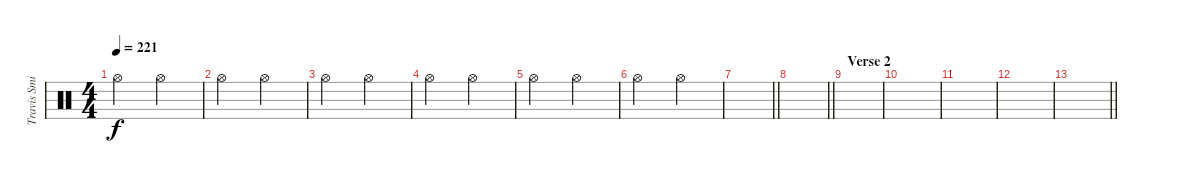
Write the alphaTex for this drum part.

\track ("Travis Smith" "Travis Smi") {instrument percussion}
\staff {score}
\articulation defaults
\ts (4 4)
\tempo 221
\clef neutral
\ks c "Hi-Hat (open)".2{dy f} "Hi-Hat (open)".2
|
"Hi-Hat (open)".2 "Hi-Hat (open)".2 |
"Hi-Hat (open)".2 "Hi-Hat (open)".2 |
"Hi-Hat (open)".2 "Hi-Hat (open)".2 |
"Hi-Hat (open)".2 "Hi-Hat (open)".2 |
"Hi-Hat (open)".2 "Hi-Hat (open)".2 |
\barLineRight lightlight
|
\barLineRight lightlight
|
\section ("" "Verse 2")
|
|
|
|
\barLineRight lightlight
